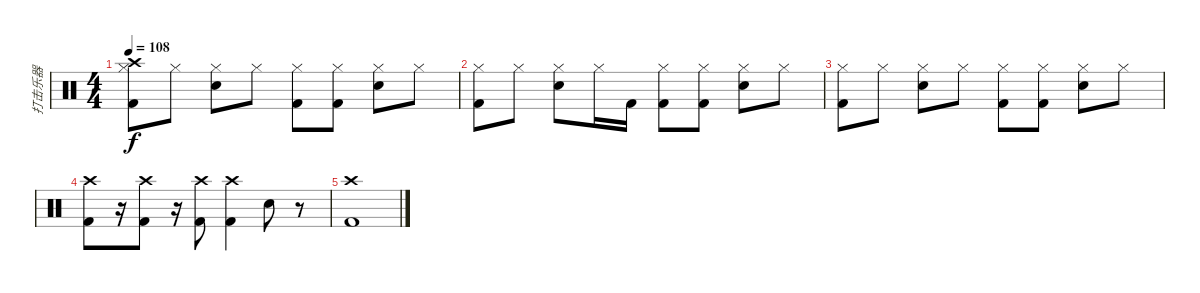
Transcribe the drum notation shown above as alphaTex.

\track ("打击乐器" "打击乐器") {instrument percussion}
\staff {score}
\articulation defaults
\ts (4 4)
\tempo 108
\clef neutral
\ks c
("Hi-Hat (closed)" "Kick (hit) 2" "Crash high (hit)").8{dy f} "Hi-Hat (closed)".8 ("Hi-Hat (closed)" "Snare (hit) 2").8 "Hi-Hat (closed)".8 ("Hi-Hat (closed)" "Kick (hit) 2").8 ("Hi-Hat (closed)" "Kick (hit) 2").8 ("Hi-Hat (closed)" "Snare (hit) 2").8 "Hi-Hat (closed)".8 |
("Hi-Hat (closed)" "Kick (hit) 2").8 "Hi-Hat (closed)".8 ("Hi-Hat (closed)" "Snare (hit) 2").8 "Hi-Hat (closed)".16 "Kick (hit) 2".16 ("Hi-Hat (closed)" "Kick (hit) 2").8 ("Hi-Hat (closed)" "Kick (hit) 2").8 ("Hi-Hat (closed)" "Snare (hit) 2").8 "Hi-Hat (closed)".8 |
("Hi-Hat (closed)" "Kick (hit) 2").8 "Hi-Hat (closed)".8 ("Hi-Hat (closed)" "Snare (hit) 2").8 "Hi-Hat (closed)".8 ("Hi-Hat (closed)" "Kick (hit) 2").8 ("Hi-Hat (closed)" "Kick (hit) 2").8 ("Hi-Hat (closed)" "Snare (hit) 2").8 "Hi-Hat (closed)".8 |
("Crash high (hit)" "Kick (hit) 2").8 r.16 ("Crash high (hit)" "Kick (hit) 2").8 r.16 ("Crash high (hit)" "Kick (hit) 2").8 ("Crash high (hit)" "Kick (hit) 2").4 "Snare (hit) 2".8 r.8 |
("Crash high (hit)" "Kick (hit) 2").1
